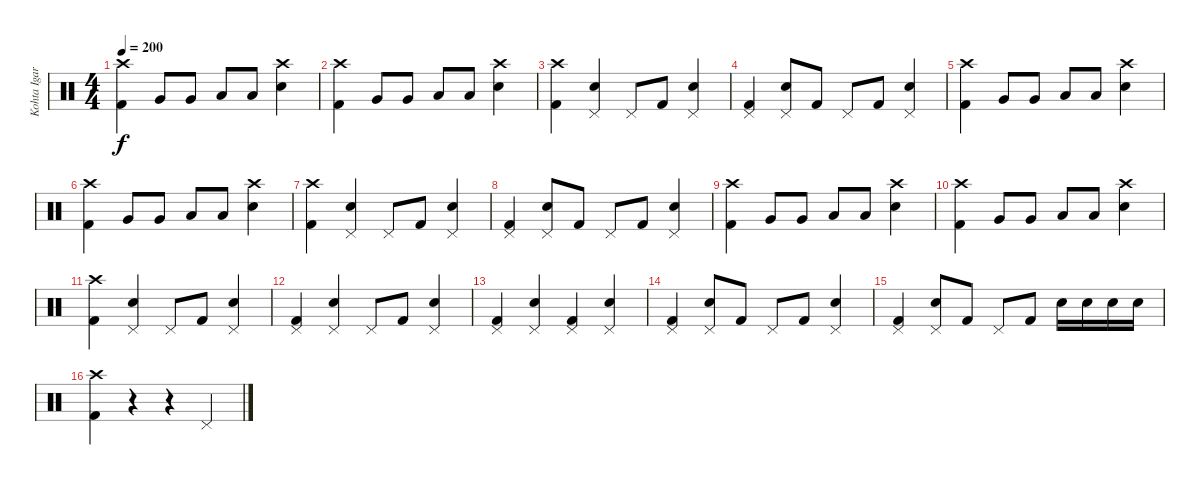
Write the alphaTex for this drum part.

\track ("Kohta Igarashi" "Kohta Igar") {instrument percussion}
\staff {score}
\articulation defaults
\ts (4 4)
\tempo 200
\clef neutral
\ks c
("Crash high (hit)" "Kick (hit) 2").4{dy f} "Very Low Tom (hit)".8 "Very Low Tom (hit)".8 "Low Floor Tom (hit)".8 "Low Floor Tom (hit)".8 ("Crash high (hit)" "Electric Snare (hit)").4 |
("Crash high (hit)" "Kick (hit) 2").4 "Very Low Tom (hit)".8 "Very Low Tom (hit)".8 "Low Floor Tom (hit)".8 "Low Floor Tom (hit)".8 ("Crash high (hit)" "Electric Snare (hit)").4 |
("Crash high (hit)" "Kick (hit) 2").4 ("Pedal Hi-Hat (hit)" "Electric Snare (hit)").4 "Pedal Hi-Hat (hit)".8 "Kick (hit) 2".8 ("Pedal Hi-Hat (hit)" "Electric Snare (hit)").4 |
("Pedal Hi-Hat (hit)" "Kick (hit) 2").4 ("Pedal Hi-Hat (hit)" "Electric Snare (hit)").8 "Kick (hit) 2".8 "Pedal Hi-Hat (hit)".8 "Kick (hit) 2".8 ("Pedal Hi-Hat (hit)" "Electric Snare (hit)").4 |
("Crash high (hit)" "Kick (hit) 2").4 "Very Low Tom (hit)".8 "Very Low Tom (hit)".8 "Low Floor Tom (hit)".8 "Low Floor Tom (hit)".8 ("Crash high (hit)" "Electric Snare (hit)").4 |
("Crash high (hit)" "Kick (hit) 2").4 "Very Low Tom (hit)".8 "Very Low Tom (hit)".8 "Low Floor Tom (hit)".8 "Low Floor Tom (hit)".8 ("Crash high (hit)" "Electric Snare (hit)").4 |
("Crash high (hit)" "Kick (hit) 2").4 ("Pedal Hi-Hat (hit)" "Electric Snare (hit)").4 "Pedal Hi-Hat (hit)".8 "Kick (hit) 2".8 ("Pedal Hi-Hat (hit)" "Electric Snare (hit)").4 |
("Pedal Hi-Hat (hit)" "Kick (hit) 2").4 ("Pedal Hi-Hat (hit)" "Electric Snare (hit)").8 "Kick (hit) 2".8 "Pedal Hi-Hat (hit)".8 "Kick (hit) 2".8 ("Pedal Hi-Hat (hit)" "Electric Snare (hit)").4 |
("Crash high (hit)" "Kick (hit) 2").4 "Very Low Tom (hit)".8 "Very Low Tom (hit)".8 "Low Floor Tom (hit)".8 "Low Floor Tom (hit)".8 ("Crash high (hit)" "Electric Snare (hit)").4 |
("Crash high (hit)" "Kick (hit) 2").4 "Very Low Tom (hit)".8 "Very Low Tom (hit)".8 "Low Floor Tom (hit)".8 "Low Floor Tom (hit)".8 ("Crash high (hit)" "Electric Snare (hit)").4 |
("Crash high (hit)" "Kick (hit) 2").4 ("Pedal Hi-Hat (hit)" "Electric Snare (hit)").4 "Pedal Hi-Hat (hit)".8 "Kick (hit) 2".8 ("Pedal Hi-Hat (hit)" "Electric Snare (hit)").4 |
("Pedal Hi-Hat (hit)" "Kick (hit) 2").4 ("Pedal Hi-Hat (hit)" "Electric Snare (hit)").4 "Pedal Hi-Hat (hit)".8 "Kick (hit) 2".8 ("Pedal Hi-Hat (hit)" "Electric Snare (hit)").4 |
("Pedal Hi-Hat (hit)" "Kick (hit) 2").4 ("Pedal Hi-Hat (hit)" "Electric Snare (hit)").4 ("Pedal Hi-Hat (hit)" "Kick (hit) 2").4 ("Pedal Hi-Hat (hit)" "Electric Snare (hit)").4 |
("Pedal Hi-Hat (hit)" "Kick (hit) 2").4 ("Pedal Hi-Hat (hit)" "Electric Snare (hit)").8 "Kick (hit) 2".8 "Pedal Hi-Hat (hit)".8 "Kick (hit) 2".8 ("Pedal Hi-Hat (hit)" "Electric Snare (hit)").4 |
("Pedal Hi-Hat (hit)" "Kick (hit) 2").4 ("Pedal Hi-Hat (hit)" "Electric Snare (hit)").8 "Kick (hit) 2".8 "Pedal Hi-Hat (hit)".8 "Kick (hit) 2".8 "Electric Snare (hit)".16 "Electric Snare (hit)".16 "Electric Snare (hit)".16 "Electric Snare (hit)".16 |
("Crash high (hit)" "Kick (hit) 2").4 r.4 r.4 "Pedal Hi-Hat (hit)".4
